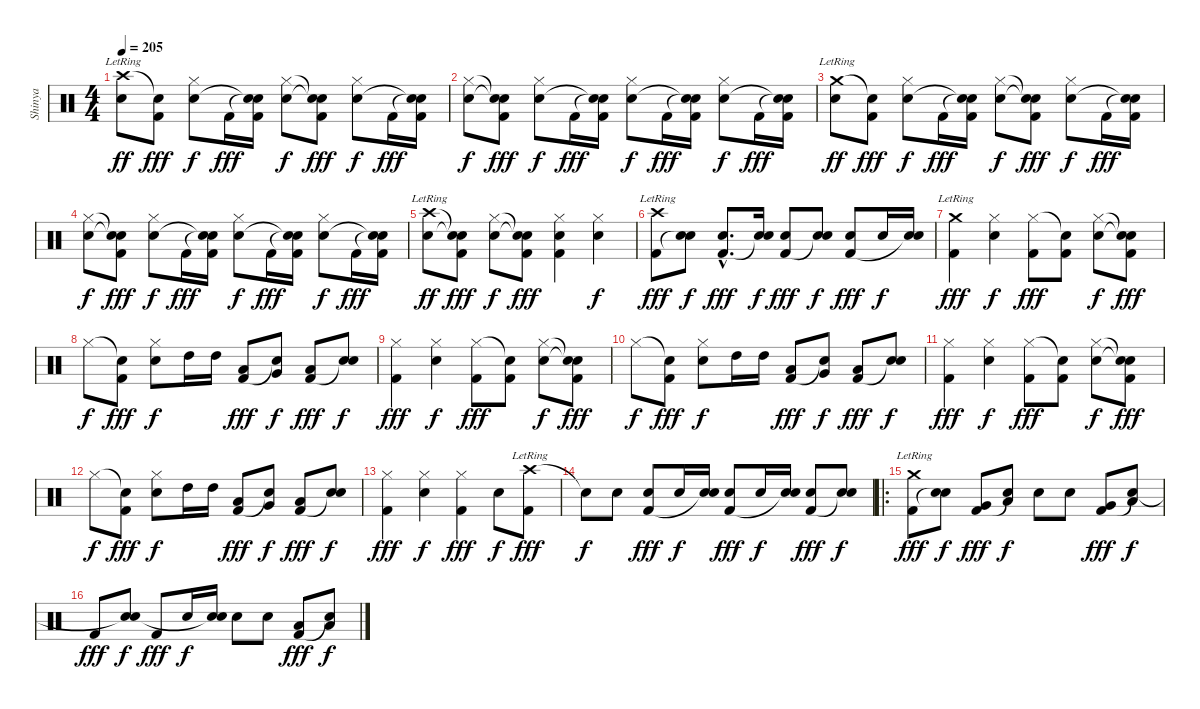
\track ("Shinya" "Shinya") {instrument percussion}
\staff {score}
\articulation defaults
\ts (4 4)
\tempo 205
\clef neutral
\ks c
("Crash high (hit)"{lr} "Electric Snare (hit)").8{dy ff} ("Snare (hit)"{t} "Kick (hit) 2").8{dy fff} ("Hi-Hat (closed)" "Electric Snare (hit)").8{dy f} "Kick (hit) 2".16{dy fff} ("Snare (hit)"{t} "Snare (hit)"{t} "Kick (hit) 2").16 ("Hi-Hat (closed)" "Electric Snare (hit)").8{dy f} ("Snare (hit)"{t} "Snare (hit)"{t} "Kick (hit) 2").8{dy fff} ("Hi-Hat (closed)" "Electric Snare (hit)").8{dy f} "Kick (hit) 2".16{dy fff} ("Snare (hit)"{t} "Snare (hit)"{t} "Kick (hit) 2").16 |
("Hi-Hat (closed)" "Electric Snare (hit)").8{dy f} ("Snare (hit)"{t} "Snare (hit)"{t} "Kick (hit) 2").8{dy fff} ("Hi-Hat (closed)" "Electric Snare (hit)").8{dy f} "Kick (hit) 2".16{dy fff} ("Snare (hit)"{t} "Snare (hit)"{t} "Kick (hit) 2").16 ("Hi-Hat (closed)" "Electric Snare (hit)").8{dy f} "Kick (hit) 2".16{dy fff} ("Snare (hit)"{t} "Snare (hit)"{t} "Kick (hit) 2").16 ("Hi-Hat (closed)" "Electric Snare (hit)").8{dy f} "Kick (hit) 2".16{dy fff} ("Snare (hit)"{t} "Snare (hit)"{t} "Kick (hit) 2").16 |
("Crash medium (hit)"{lr} "Electric Snare (hit)").8{dy ff} ("Snare (hit)"{t} "Kick (hit) 2").8{dy fff} ("Hi-Hat (closed)" "Electric Snare (hit)").8{dy f} "Kick (hit) 2".16{dy fff} ("Snare (hit)"{t} "Snare (hit)"{t} "Kick (hit) 2").16 ("Hi-Hat (closed)" "Electric Snare (hit)").8{dy f} ("Snare (hit)"{t} "Snare (hit)"{t} "Kick (hit) 2").8{dy fff} ("Hi-Hat (closed)" "Electric Snare (hit)").8{dy f} "Kick (hit) 2".16{dy fff} ("Snare (hit)"{t} "Snare (hit)"{t} "Kick (hit) 2").16 |
("Hi-Hat (closed)" "Electric Snare (hit)").8{dy f} ("Snare (hit)"{t} "Snare (hit)"{t} "Kick (hit) 2").8{dy fff} ("Hi-Hat (closed)" "Electric Snare (hit)").8{dy f} "Kick (hit) 2".16{dy fff} ("Snare (hit)"{t} "Snare (hit)"{t} "Kick (hit) 2").16 ("Hi-Hat (closed)" "Electric Snare (hit)").8{dy f} "Kick (hit) 2".16{dy fff} ("Snare (hit)"{t} "Snare (hit)"{t} "Kick (hit) 2").16 ("Hi-Hat (closed)" "Electric Snare (hit)").8{dy f} "Kick (hit) 2".16{dy fff} ("Snare (hit)"{t} "Snare (hit)"{t} "Kick (hit) 2").16 |
("Crash high (hit)"{lr} "Electric Snare (hit)").8{dy ff} ("Snare (hit)"{t} "Snare (hit)"{t} "Kick (hit) 2").8{dy fff} ("Hi-Hat (closed)" "Electric Snare (hit)").8{dy f} ("Snare (hit)"{t} "Snare (hit)"{t} "Kick (hit) 2").8{dy fff} ("Hi-Hat (closed)" "Electric Snare (hit)" "Kick (hit) 2").4 ("Hi-Hat (closed)" "Electric Snare (hit)").4{dy f} |
("Crash high (hit)"{lr} "Kick (hit) 2").8{dy fff} ("Electric Snare (hit)" "Snare (hit)"{t}).8{dy f} ("Electric Snare (hit)"{hac} "Kick (hit) 2"{hac}).8{d dy fff} ("Electric Snare (hit)" "Snare (hit)"{t}).16{dy f} ("Electric Snare (hit)" "Kick (hit) 2").8{dy fff} ("Electric Snare (hit)" "Snare (hit)"{t}).8{dy f} ("Electric Snare (hit)" "Kick (hit) 2").8{dy fff} "Electric Snare (hit)".16{dy f} ("Electric Snare (hit)" "Snare (hit)"{t}).16 |
("Crash medium (hit)"{lr} "Kick (hit) 2").4{dy fff} ("Hi-Hat (closed)" "Electric Snare (hit)").4{dy f} ("Hi-Hat (closed)" "Kick (hit) 2").8{dy fff} ("Snare (hit)"{t} "Kick (hit) 2").8 ("Hi-Hat (closed)" "Electric Snare (hit)").8{dy f} ("Snare (hit)"{t} "Snare (hit)"{t} "Kick (hit) 2").8{dy fff} |
"Hi-Hat (closed)".8{dy f} ("Snare (hit)"{t} "Kick (hit) 2").8{dy fff} ("Hi-Hat (closed)" "Electric Snare (hit)").8{dy f} "High Tom (hit)".16 "High Tom (hit)".16 ("Low Tom (hit)" "Kick (hit) 2").8{dy fff} ("Very Low Tom (hit)" "Snare (hit)"{t}).8{dy f} ("Low Floor Tom (hit)" "Kick (hit) 2").8{dy fff} ("Electric Snare (hit)" "Snare (hit)"{t}).8{dy f} |
("Hi-Hat (closed)" "Kick (hit) 2").4{dy fff} ("Hi-Hat (closed)" "Electric Snare (hit)").4{dy f} ("Hi-Hat (closed)" "Kick (hit) 2").8{dy fff} ("Snare (hit)"{t} "Kick (hit) 2").8 ("Hi-Hat (closed)" "Electric Snare (hit)").8{dy f} ("Snare (hit)"{t} "Snare (hit)"{t} "Kick (hit) 2").8{dy fff} |
"Hi-Hat (closed)".8{dy f} ("Snare (hit)"{t} "Kick (hit) 2").8{dy fff} ("Hi-Hat (closed)" "Electric Snare (hit)").8{dy f} "High Tom (hit)".16 "High Tom (hit)".16 ("Low Tom (hit)" "Kick (hit) 2").8{dy fff} ("Very Low Tom (hit)" "Snare (hit)"{t}).8{dy f} ("Low Floor Tom (hit)" "Kick (hit) 2").8{dy fff} ("Electric Snare (hit)" "Snare (hit)"{t}).8{dy f} |
("Hi-Hat (closed)" "Kick (hit) 2").4{dy fff} ("Hi-Hat (closed)" "Electric Snare (hit)").4{dy f} ("Hi-Hat (closed)" "Kick (hit) 2").8{dy fff} ("Snare (hit)"{t} "Kick (hit) 2").8 ("Hi-Hat (closed)" "Electric Snare (hit)").8{dy f} ("Snare (hit)"{t} "Snare (hit)"{t} "Kick (hit) 2").8{dy fff} |
"Hi-Hat (closed)".8{dy f} ("Snare (hit)"{t} "Kick (hit) 2").8{dy fff} ("Hi-Hat (closed)" "Electric Snare (hit)").8{dy f} "High Tom (hit)".16 "High Tom (hit)".16 ("Low Tom (hit)" "Kick (hit) 2").8{dy fff} ("Very Low Tom (hit)" "Snare (hit)"{t}).8{dy f} ("Low Floor Tom (hit)" "Kick (hit) 2").8{dy fff} ("Electric Snare (hit)" "Snare (hit)"{t}).8{dy f} |
("Hi-Hat (closed)" "Kick (hit) 2").4{dy fff} ("Hi-Hat (closed)" "Electric Snare (hit)").4{dy f} ("Hi-Hat (closed)" "Kick (hit) 2").4{dy fff} "Electric Snare (hit)".8{dy f} ("Crash high (hit)"{lr} "Kick (hit) 2").8{dy fff} |
"Snare (hit)"{t}.8{dy f} "Electric Snare (hit)".8 ("Electric Snare (hit)" "Kick (hit) 2").8{dy fff} "Electric Snare (hit)".16{dy f} ("Electric Snare (hit)" "Snare (hit)"{t}).16 ("Electric Snare (hit)" "Kick (hit) 2").8{dy fff} "Electric Snare (hit)".16{dy f} ("Electric Snare (hit)" "Snare (hit)"{t}).16 ("Electric Snare (hit)" "Kick (hit) 2").8{dy fff} ("Electric Snare (hit)" "Snare (hit)"{t}).8{dy f} |
\ro
("Crash medium (hit)"{lr} "Kick (hit) 2").8{dy fff} ("Electric Snare (hit)" "Snare (hit)"{t}).8{dy f} ("Very Low Tom (hit)" "Kick (hit) 2").8{dy fff} ("Low Floor Tom (hit)" "Snare (hit)"{t}).8{dy f} "Electric Snare (hit)".8 "Electric Snare (hit)".8 ("Very Low Tom (hit)" "Kick (hit) 2").8{dy fff} ("Low Floor Tom (hit)" "Snare (hit)"{t}).8{dy f} |
"Kick (hit) 2".8{dy fff} ("Electric Snare (hit)" "Snare (hit)"{t}).8{dy f} "Kick (hit) 2".8{dy fff} "Electric Snare (hit)".16{dy f} ("Electric Snare (hit)" "Snare (hit)"{t}).16 "Electric Snare (hit)".8 "Electric Snare (hit)".8 ("Low Floor Tom (hit)" "Kick (hit) 2").8{dy fff} ("Low Floor Tom (hit)" "Snare (hit)"{t}).8{dy f}
